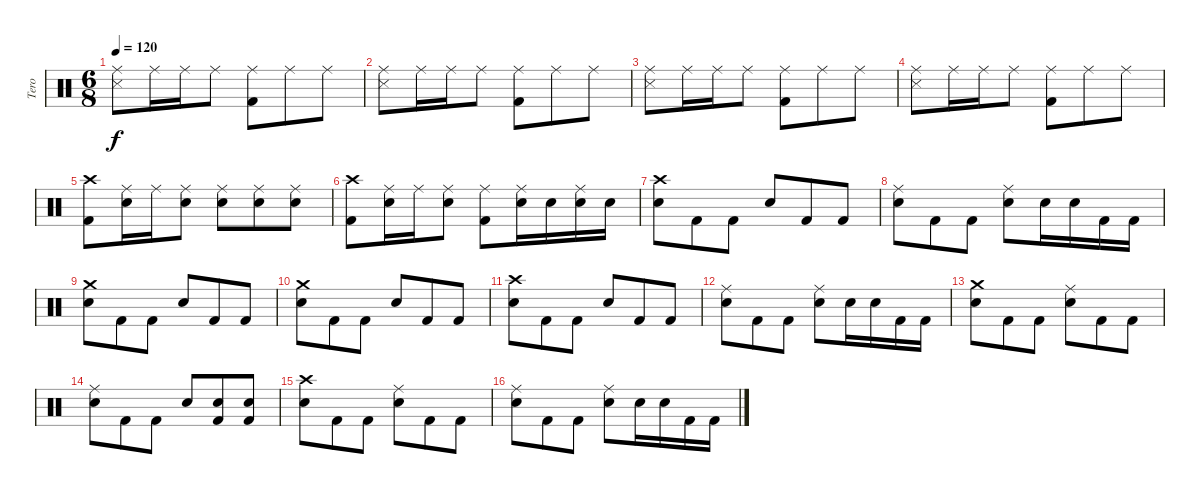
\track ("Tero" "Tero") {instrument percussion}
\staff {score}
\articulation defaults
\ts (6 8)
\tempo 120
\clef neutral
\ks c
("Snare (side stick) 3" "Ride (middle)").8{dy f} "Ride (middle)".16 "Ride (middle)".16 "Ride (middle)".8 ("Kick (hit) 2" "Ride (middle)").8 "Ride (middle)".8 "Ride (middle)".8 |
("Snare (side stick) 3" "Ride (middle)").8 "Ride (middle)".16 "Ride (middle)".16 "Ride (middle)".8 ("Kick (hit) 2" "Ride (middle)").8 "Ride (middle)".8 "Ride (middle)".8 |
("Snare (side stick) 3" "Ride (middle)").8 "Ride (middle)".16 "Ride (middle)".16 "Ride (middle)".8 ("Kick (hit) 2" "Ride (middle)").8 "Ride (middle)".8 "Ride (middle)".8 |
("Snare (side stick) 3" "Ride (middle)").8 "Ride (middle)".16 "Ride (middle)".16 "Ride (middle)".8 ("Kick (hit) 2" "Ride (middle)").8 "Ride (middle)".8 "Ride (middle)".8 |
("Kick (hit) 2" "Crash high (hit)").8 ("Snare (hit) 2" "Ride (middle)").16 "Ride (middle)".16 ("Snare (hit) 2" "Ride (middle)").8 ("Snare (hit) 2" "Ride (middle)").8 ("Snare (hit) 2" "Ride (middle)").8 ("Snare (hit) 2" "Ride (middle)").8 |
("Kick (hit) 2" "Crash high (hit)").8 ("Snare (hit) 2" "Ride (middle)").16 "Ride (middle)".16 ("Snare (hit) 2" "Ride (middle)").8 ("Kick (hit) 2" "Ride (middle)").8 ("Electric Snare (hit)" "Ride (middle)").16 "Electric Snare (hit)".16 ("Snare (hit) 2" "Ride (middle)").16 "Snare (hit) 2".16 |
("Snare (hit) 2" "Crash high (hit)").8 "Kick (hit) 2".8 "Kick (hit) 2".8 "Snare (hit) 2".8 "Kick (hit) 2".8 "Kick (hit) 2".8 |
("Ride (middle)" "Snare (hit) 2").8 "Kick (hit) 2".8 "Kick (hit) 2".8 ("Ride (middle)" "Snare (hit) 2").8 "Snare (hit) 2".16 "Snare (hit) 2".16 "Kick (hit) 2".16 "Kick (hit) 2".16 |
("Snare (hit) 2" "Crash medium (hit)").8 "Kick (hit) 2".8 "Kick (hit) 2".8 "Snare (hit) 2".8 "Kick (hit) 2".8 "Kick (hit) 2".8 |
("Crash medium (hit)" "Snare (hit) 2").8 "Kick (hit) 2".8 "Kick (hit) 2".8 "Snare (hit) 2".8 "Kick (hit) 2".8 "Kick (hit) 2".8 |
("Crash high (hit)" "Snare (hit) 2").8 "Kick (hit) 2".8 "Kick (hit) 2".8 "Snare (hit) 2".8 "Kick (hit) 2".8 "Kick (hit) 2".8 |
("Snare (hit) 2" "Ride (middle)").8 "Kick (hit) 2".8 "Kick (hit) 2".8 ("Snare (hit) 2" "Ride (middle)").8 "Snare (hit) 2".16 "Snare (hit) 2".16 "Kick (hit) 2".16 "Kick (hit) 2".16 |
("Crash medium (hit)" "Snare (hit) 2").8 "Kick (hit) 2".8 "Kick (hit) 2".8 ("Ride (middle)" "Snare (hit) 2").8 "Kick (hit) 2".8 "Kick (hit) 2".8 |
("Ride (middle)" "Snare (hit) 2").8 "Kick (hit) 2".8 "Kick (hit) 2".8 "Snare (hit) 2".8 ("Snare (hit) 2" "Kick (hit) 2").8 ("Snare (hit) 2" "Kick (hit) 2").8 |
("Crash high (hit)" "Snare (hit) 2").8 "Kick (hit) 2".8 "Kick (hit) 2".8 ("Ride (middle)" "Snare (hit) 2").8 "Kick (hit) 2".8 "Kick (hit) 2".8 |
("Ride (middle)" "Snare (hit) 2").8 "Kick (hit) 2".8 "Kick (hit) 2".8 ("Ride (middle)" "Snare (hit) 2").8 "Snare (hit) 2".16 "Snare (hit) 2".16 "Kick (hit) 2".16 "Kick (hit) 2".16
